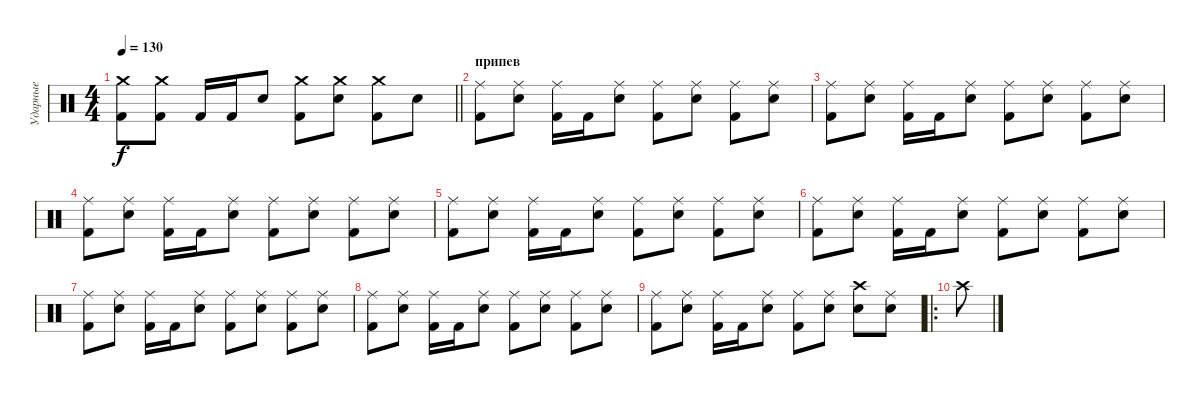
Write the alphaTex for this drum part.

\track ("Ударные" "Ударные") {instrument percussion}
\staff {score}
\articulation defaults
\ts (4 4)
\tempo 130
\clef neutral
\barLineRight lightlight
\ks c
("Kick (hit) 2" "Crash medium (hit)").8{dy f} ("Kick (hit) 2" "Crash medium (hit)").8 "Kick (hit) 2".16 "Kick (hit) 2".16 "Electric Snare (hit)".8 ("Kick (hit) 2" "Crash medium (hit)").8 ("Electric Snare (hit)" "Crash medium (hit)").8 ("Kick (hit) 2" "Crash medium (hit)").8 "Electric Snare (hit)".8 |
\section ("" "припев")
("Kick (hit) 2" "Ride (middle)").8 ("Electric Snare (hit)" "Ride (middle)").8 ("Kick (hit) 2" "Ride (middle)").16 "Kick (hit) 2".16 ("Electric Snare (hit)" "Ride (middle)").8 ("Kick (hit) 2" "Ride (middle)").8 ("Electric Snare (hit)" "Ride (middle)").8 ("Kick (hit) 2" "Ride (middle)").8 ("Electric Snare (hit)" "Ride (middle)").8 |
("Kick (hit) 2" "Ride (middle)").8 ("Electric Snare (hit)" "Ride (middle)").8 ("Kick (hit) 2" "Ride (middle)").16 "Kick (hit) 2".16 ("Electric Snare (hit)" "Ride (middle)").8 ("Kick (hit) 2" "Ride (middle)").8 ("Electric Snare (hit)" "Ride (middle)").8 ("Kick (hit) 2" "Ride (middle)").8 ("Electric Snare (hit)" "Ride (middle)").8 |
("Kick (hit) 2" "Ride (middle)").8 ("Electric Snare (hit)" "Ride (middle)").8 ("Kick (hit) 2" "Ride (middle)").16 "Kick (hit) 2".16 ("Electric Snare (hit)" "Ride (middle)").8 ("Kick (hit) 2" "Ride (middle)").8 ("Electric Snare (hit)" "Ride (middle)").8 ("Kick (hit) 2" "Ride (middle)").8 ("Electric Snare (hit)" "Ride (middle)").8 |
("Kick (hit) 2" "Ride (middle)").8 ("Electric Snare (hit)" "Ride (middle)").8 ("Kick (hit) 2" "Ride (middle)").16 "Kick (hit) 2".16 ("Electric Snare (hit)" "Ride (middle)").8 ("Kick (hit) 2" "Ride (middle)").8 ("Electric Snare (hit)" "Ride (middle)").8 ("Kick (hit) 2" "Ride (middle)").8 ("Electric Snare (hit)" "Ride (middle)").8 |
("Kick (hit) 2" "Ride (middle)").8 ("Electric Snare (hit)" "Ride (middle)").8 ("Kick (hit) 2" "Ride (middle)").16 "Kick (hit) 2".16 ("Electric Snare (hit)" "Ride (middle)").8 ("Kick (hit) 2" "Ride (middle)").8 ("Electric Snare (hit)" "Ride (middle)").8 ("Kick (hit) 2" "Ride (middle)").8 ("Electric Snare (hit)" "Ride (middle)").8 |
("Kick (hit) 2" "Ride (middle)").8 ("Electric Snare (hit)" "Ride (middle)").8 ("Kick (hit) 2" "Ride (middle)").16 "Kick (hit) 2".16 ("Electric Snare (hit)" "Ride (middle)").8 ("Kick (hit) 2" "Ride (middle)").8 ("Electric Snare (hit)" "Ride (middle)").8 ("Kick (hit) 2" "Ride (middle)").8 ("Electric Snare (hit)" "Ride (middle)").8 |
("Kick (hit) 2" "Ride (middle)").8 ("Electric Snare (hit)" "Ride (middle)").8 ("Kick (hit) 2" "Ride (middle)").16 "Kick (hit) 2".16 ("Electric Snare (hit)" "Ride (middle)").8 ("Kick (hit) 2" "Ride (middle)").8 ("Electric Snare (hit)" "Ride (middle)").8 ("Kick (hit) 2" "Ride (middle)").8 ("Electric Snare (hit)" "Ride (middle)").8 |
("Kick (hit) 2" "Ride (middle)").8 ("Electric Snare (hit)" "Ride (middle)").8 ("Kick (hit) 2" "Ride (middle)").16 "Kick (hit) 2".16 ("Electric Snare (hit)" "Ride (middle)").8 ("Kick (hit) 2" "Ride (middle)").8 ("Electric Snare (hit)" "Ride (middle)").8 ("Electric Snare (hit)" "Crash high (hit)").8 ("Electric Snare (hit)" "Ride (middle)").8 |
\ro "Crash high (hit)".8
